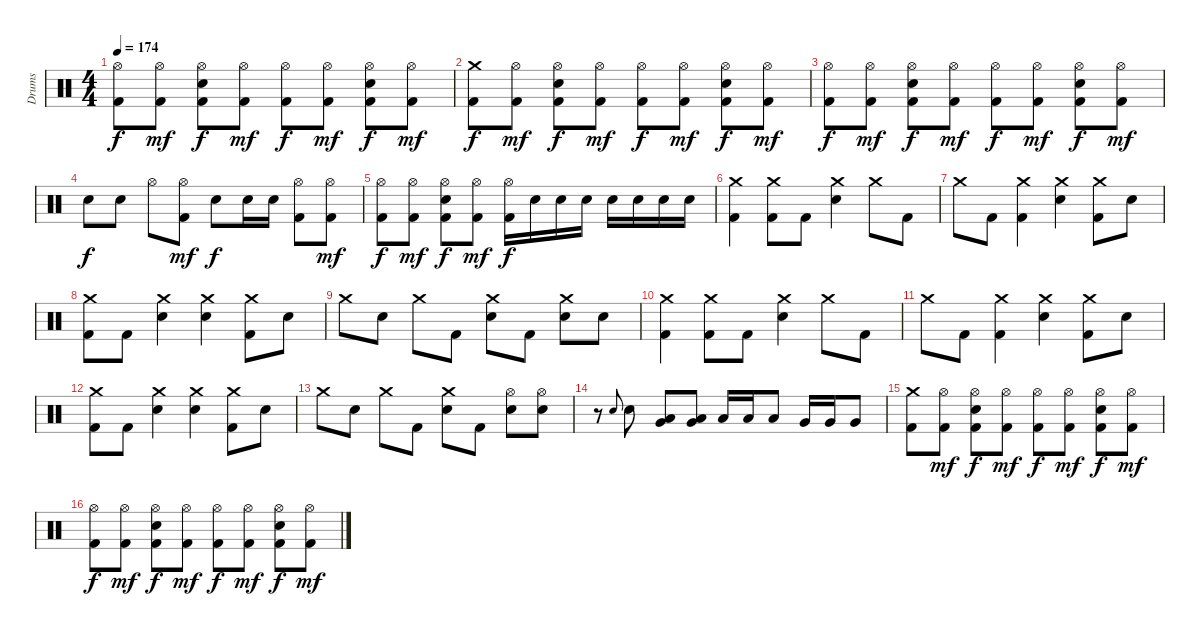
\track ("Drums" "Drums") {instrument percussion}
\staff {score}
\articulation defaults
\ts (4 4)
\tempo 174
\clef neutral
\ks c
("Hi-Hat (open)" "Kick (hit) 2").8{dy f} ("Hi-Hat (open)" "Kick (hit) 2").8{dy mf} ("Hi-Hat (open)" "Electric Snare (hit)" "Kick (hit) 2").8{dy f} ("Hi-Hat (open)" "Kick (hit) 2").8{dy mf} ("Hi-Hat (open)" "Kick (hit) 2").8{dy f} ("Hi-Hat (open)" "Kick (hit) 2").8{dy mf} ("Hi-Hat (open)" "Electric Snare (hit)" "Kick (hit) 2").8{dy f} ("Hi-Hat (open)" "Kick (hit) 2").8{dy mf} |
("Crash medium (hit)" "Kick (hit) 2").8{dy f} ("Hi-Hat (open)" "Kick (hit) 2").8{dy mf} ("Hi-Hat (open)" "Electric Snare (hit)" "Kick (hit) 2").8{dy f} ("Hi-Hat (open)" "Kick (hit) 2").8{dy mf} ("Hi-Hat (open)" "Kick (hit) 2").8{dy f} ("Hi-Hat (open)" "Kick (hit) 2").8{dy mf} ("Hi-Hat (open)" "Electric Snare (hit)" "Kick (hit) 2").8{dy f} ("Hi-Hat (open)" "Kick (hit) 2").8{dy mf} |
("Hi-Hat (open)" "Kick (hit) 2").8{dy f} ("Hi-Hat (open)" "Kick (hit) 2").8{dy mf} ("Hi-Hat (open)" "Electric Snare (hit)" "Kick (hit) 2").8{dy f} ("Hi-Hat (open)" "Kick (hit) 2").8{dy mf} ("Hi-Hat (open)" "Kick (hit) 2").8{dy f} ("Hi-Hat (open)" "Kick (hit) 2").8{dy mf} ("Hi-Hat (open)" "Electric Snare (hit)" "Kick (hit) 2").8{dy f} ("Hi-Hat (open)" "Kick (hit) 2").8{dy mf} |
"Electric Snare (hit)".8{dy f} "Electric Snare (hit)".8 "Hi-Hat (open)".8 ("Hi-Hat (open)" "Kick (hit) 2").8{dy mf} "Electric Snare (hit)".8{dy f} "Electric Snare (hit)".16 "Electric Snare (hit)".16 ("Hi-Hat (open)" "Kick (hit) 2").8 ("Hi-Hat (open)" "Kick (hit) 2").8{dy mf} |
("Hi-Hat (open)" "Kick (hit) 2").8{dy f} ("Hi-Hat (open)" "Kick (hit) 2").8{dy mf} ("Hi-Hat (open)" "Electric Snare (hit)" "Kick (hit) 2").8{dy f} ("Hi-Hat (open)" "Kick (hit) 2").8{dy mf} ("Hi-Hat (open)" "Kick (hit) 2").16{dy f} "Electric Snare (hit)".16 "Electric Snare (hit)".16 "Electric Snare (hit)".16 "Electric Snare (hit)".16 "Electric Snare (hit)".16 "Electric Snare (hit)".16 "Electric Snare (hit)".16 |
("Crash medium (hit)" "Kick (hit) 2").4 ("Crash medium (hit)" "Kick (hit) 2").8 "Kick (hit) 2".8 ("Crash medium (hit)" "Electric Snare (hit)").4 "Crash medium (hit)".8 "Kick (hit) 2".8 |
"Crash medium (hit)".8 "Kick (hit) 2".8 ("Crash medium (hit)" "Kick (hit) 2").4 ("Crash medium (hit)" "Electric Snare (hit)").4 ("Crash medium (hit)" "Kick (hit) 2").8 "Electric Snare (hit)".8 |
("Crash medium (hit)" "Kick (hit) 2").8 "Kick (hit) 2".8 ("Crash medium (hit)" "Electric Snare (hit)").4 ("Crash medium (hit)" "Electric Snare (hit)").4 ("Crash medium (hit)" "Kick (hit) 2").8 "Electric Snare (hit)".8 |
"Crash medium (hit)".8 "Electric Snare (hit)".8 "Crash medium (hit)".8 "Kick (hit) 2".8 ("Crash medium (hit)" "Electric Snare (hit)").8 "Kick (hit) 2".8 ("Crash medium (hit)" "Electric Snare (hit)").8 "Electric Snare (hit)".8 |
("Crash medium (hit)" "Kick (hit) 2").4 ("Crash medium (hit)" "Kick (hit) 2").8 "Kick (hit) 2".8 ("Crash medium (hit)" "Electric Snare (hit)").4 "Crash medium (hit)".8 "Kick (hit) 2".8 |
"Crash medium (hit)".8 "Kick (hit) 2".8 ("Crash medium (hit)" "Kick (hit) 2").4 ("Crash medium (hit)" "Electric Snare (hit)").4 ("Crash medium (hit)" "Kick (hit) 2").8 "Electric Snare (hit)".8 |
("Crash medium (hit)" "Kick (hit) 2").8 "Kick (hit) 2".8 ("Crash medium (hit)" "Electric Snare (hit)").4 ("Crash medium (hit)" "Electric Snare (hit)").4 ("Crash medium (hit)" "Kick (hit) 2").8 "Electric Snare (hit)".8 |
"Crash medium (hit)".8 "Electric Snare (hit)".8 "Crash medium (hit)".8 "Kick (hit) 2".8 ("Crash medium (hit)" "Electric Snare (hit)").8 "Kick (hit) 2".8 ("Hi-Hat (open)" "Electric Snare (hit)").8 ("Hi-Hat (open)" "Electric Snare (hit)").8 |
r.8 "Electric Snare (hit)".8{gr onbeat} "Electric Snare (hit)".8 ("Low Tom (hit)" "Very Low Tom (hit)").8 ("Low Tom (hit)" "Very Low Tom (hit)").8 "Low Tom (hit)".16 "Low Tom (hit)".16 "Low Tom (hit)".8 "Very Low Tom (hit)".16 "Very Low Tom (hit)".16 "Very Low Tom (hit)".8 |
("Crash medium (hit)" "Kick (hit) 2").8 ("Hi-Hat (open)" "Kick (hit) 2").8{dy mf} ("Hi-Hat (open)" "Electric Snare (hit)" "Kick (hit) 2").8{dy f} ("Hi-Hat (open)" "Kick (hit) 2").8{dy mf} ("Hi-Hat (open)" "Kick (hit) 2").8{dy f} ("Hi-Hat (open)" "Kick (hit) 2").8{dy mf} ("Hi-Hat (open)" "Electric Snare (hit)" "Kick (hit) 2").8{dy f} ("Hi-Hat (open)" "Kick (hit) 2").8{dy mf} |
("Hi-Hat (open)" "Kick (hit) 2").8{dy f} ("Hi-Hat (open)" "Kick (hit) 2").8{dy mf} ("Hi-Hat (open)" "Electric Snare (hit)" "Kick (hit) 2").8{dy f} ("Hi-Hat (open)" "Kick (hit) 2").8{dy mf} ("Hi-Hat (open)" "Kick (hit) 2").8{dy f} ("Hi-Hat (open)" "Kick (hit) 2").8{dy mf} ("Hi-Hat (open)" "Electric Snare (hit)" "Kick (hit) 2").8{dy f} ("Hi-Hat (open)" "Kick (hit) 2").8{dy mf}
